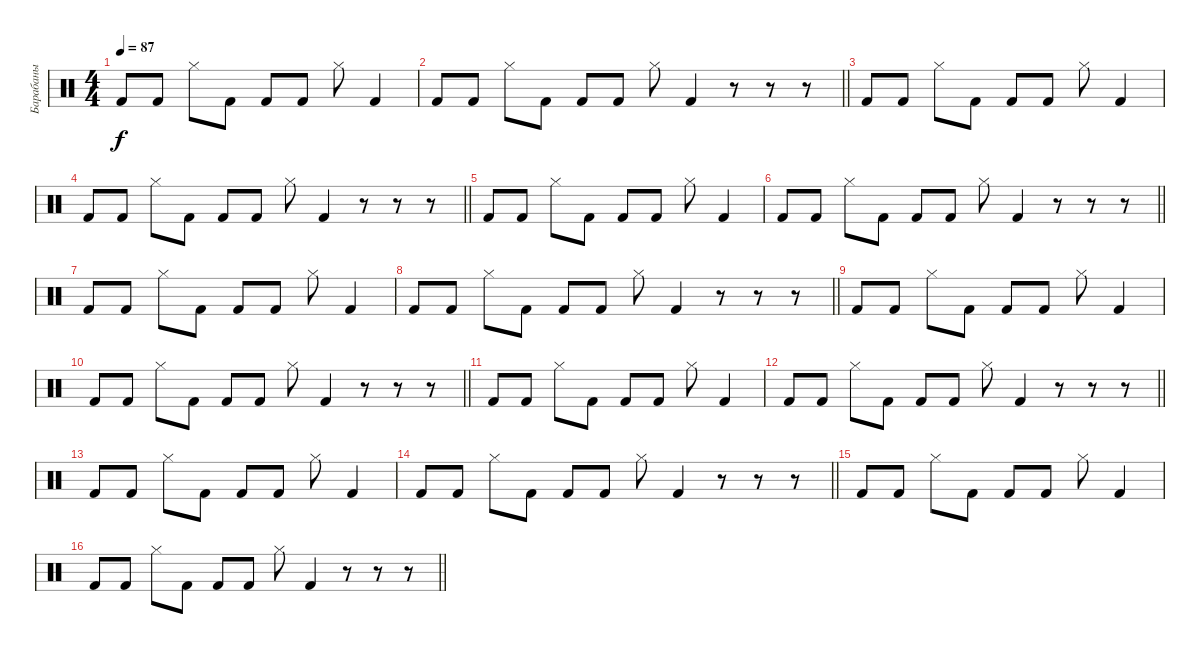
\track ("Барабаны" "Барабаны") {instrument percussion}
\staff {score}
\articulation defaults
\ts (4 4)
\tempo 87
\clef neutral
\ks c "Kick (hit) 2".8{dy f} "Kick (hit) 2".8 "Hi-Hat (closed)".8 "Kick (hit) 2".8 "Kick (hit) 2".8 "Kick (hit) 2".8 "Hi-Hat (closed)".8 "Kick (hit) 2".4
|
\barLineRight lightlight "Kick (hit) 2".8 "Kick (hit) 2".8 "Hi-Hat (closed)".8 "Kick (hit) 2".8 "Kick (hit) 2".8 "Kick (hit) 2".8 "Hi-Hat (closed)".8 "Kick (hit) 2".4
r.8 r.8 r.8 |
"Kick (hit) 2".8 "Kick (hit) 2".8 "Hi-Hat (closed)".8 "Kick (hit) 2".8 "Kick (hit) 2".8 "Kick (hit) 2".8 "Hi-Hat (closed)".8 "Kick (hit) 2".4 |
\barLineRight lightlight "Kick (hit) 2".8 "Kick (hit) 2".8 "Hi-Hat (closed)".8 "Kick (hit) 2".8 "Kick (hit) 2".8 "Kick (hit) 2".8 "Hi-Hat (closed)".8 "Kick (hit) 2".4
r.8 r.8 r.8 |
"Kick (hit) 2".8 "Kick (hit) 2".8 "Hi-Hat (closed)".8 "Kick (hit) 2".8 "Kick (hit) 2".8 "Kick (hit) 2".8 "Hi-Hat (closed)".8 "Kick (hit) 2".4 |
\barLineRight lightlight "Kick (hit) 2".8 "Kick (hit) 2".8 "Hi-Hat (closed)".8 "Kick (hit) 2".8 "Kick (hit) 2".8 "Kick (hit) 2".8 "Hi-Hat (closed)".8 "Kick (hit) 2".4
r.8 r.8 r.8 |
"Kick (hit) 2".8 "Kick (hit) 2".8 "Hi-Hat (closed)".8 "Kick (hit) 2".8 "Kick (hit) 2".8 "Kick (hit) 2".8 "Hi-Hat (closed)".8 "Kick (hit) 2".4 |
\barLineRight lightlight "Kick (hit) 2".8 "Kick (hit) 2".8 "Hi-Hat (closed)".8 "Kick (hit) 2".8 "Kick (hit) 2".8 "Kick (hit) 2".8 "Hi-Hat (closed)".8 "Kick (hit) 2".4
r.8 r.8 r.8 |
"Kick (hit) 2".8 "Kick (hit) 2".8 "Hi-Hat (closed)".8 "Kick (hit) 2".8 "Kick (hit) 2".8 "Kick (hit) 2".8 "Hi-Hat (closed)".8 "Kick (hit) 2".4 |
\barLineRight lightlight "Kick (hit) 2".8 "Kick (hit) 2".8 "Hi-Hat (closed)".8 "Kick (hit) 2".8 "Kick (hit) 2".8 "Kick (hit) 2".8 "Hi-Hat (closed)".8 "Kick (hit) 2".4
r.8 r.8 r.8 |
"Kick (hit) 2".8 "Kick (hit) 2".8 "Hi-Hat (closed)".8 "Kick (hit) 2".8 "Kick (hit) 2".8 "Kick (hit) 2".8 "Hi-Hat (closed)".8 "Kick (hit) 2".4 |
\barLineRight lightlight "Kick (hit) 2".8 "Kick (hit) 2".8 "Hi-Hat (closed)".8 "Kick (hit) 2".8 "Kick (hit) 2".8 "Kick (hit) 2".8 "Hi-Hat (closed)".8 "Kick (hit) 2".4
r.8 r.8 r.8 |
"Kick (hit) 2".8 "Kick (hit) 2".8 "Hi-Hat (closed)".8 "Kick (hit) 2".8 "Kick (hit) 2".8 "Kick (hit) 2".8 "Hi-Hat (closed)".8 "Kick (hit) 2".4 |
\barLineRight lightlight "Kick (hit) 2".8 "Kick (hit) 2".8 "Hi-Hat (closed)".8 "Kick (hit) 2".8 "Kick (hit) 2".8 "Kick (hit) 2".8 "Hi-Hat (closed)".8 "Kick (hit) 2".4
r.8 r.8 r.8 |
"Kick (hit) 2".8 "Kick (hit) 2".8 "Hi-Hat (closed)".8 "Kick (hit) 2".8 "Kick (hit) 2".8 "Kick (hit) 2".8 "Hi-Hat (closed)".8 "Kick (hit) 2".4 |
\barLineRight lightlight "Kick (hit) 2".8 "Kick (hit) 2".8 "Hi-Hat (closed)".8 "Kick (hit) 2".8 "Kick (hit) 2".8 "Kick (hit) 2".8 "Hi-Hat (closed)".8 "Kick (hit) 2".4
r.8 r.8 r.8
